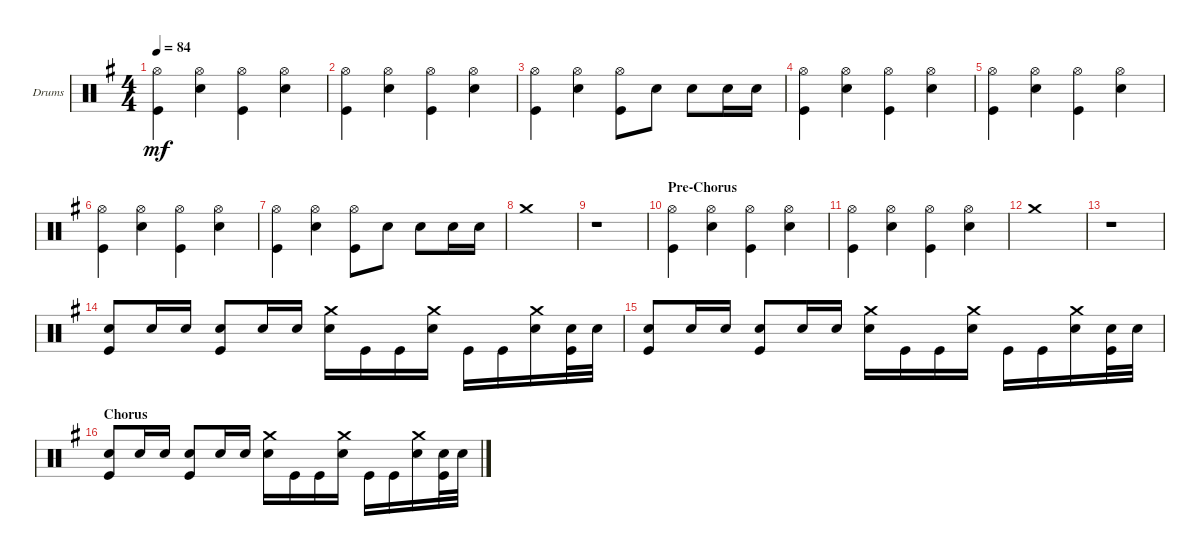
\bracketExtendMode groupsimilarinstruments
\firstSystemTrackNameOrientation horizontal
\otherSystemsTrackNameOrientation horizontal
\track ("Drumkit" "Drums") {instrument percussion}
\staff {score}
\articulation defaults
\ts (4 4)
\tempo 84
\clef neutral
\scale
1.04288
\ks g
("Hi-Hat (open)" "Kick (hit)").4{dy mf} ("Hi-Hat (open)" "Snare (hit) 2").4 ("Hi-Hat (open)" "Kick (hit)").4 ("Hi-Hat (open)" "Snare (hit) 2").4 |
\scale
0.957125 ("Hi-Hat (open)" "Kick (hit)").4 ("Hi-Hat (open)" "Snare (hit) 2").4 ("Hi-Hat (open)" "Kick (hit)").4 ("Hi-Hat (open)" "Snare (hit) 2").4 |
\scale
1.04288 ("Hi-Hat (open)" "Kick (hit)").4 ("Hi-Hat (open)" "Snare (hit) 2").4 ("Hi-Hat (open)" "Kick (hit)").8 "Snare (hit) 2".8 "Snare (hit) 2".8 "Snare (hit) 2".16 "Snare (hit) 2".16 |
\scale
0.957125 ("Hi-Hat (open)" "Kick (hit)").4 ("Hi-Hat (open)" "Snare (hit) 2").4 ("Hi-Hat (open)" "Kick (hit)").4 ("Hi-Hat (open)" "Snare (hit) 2").4 |
\scale
1.04288 ("Hi-Hat (open)" "Kick (hit)").4 ("Hi-Hat (open)" "Snare (hit) 2").4 ("Hi-Hat (open)" "Kick (hit)").4 ("Hi-Hat (open)" "Snare (hit) 2").4 |
\scale
0.957125 ("Hi-Hat (open)" "Kick (hit)").4 ("Hi-Hat (open)" "Snare (hit) 2").4 ("Hi-Hat (open)" "Kick (hit)").4 ("Hi-Hat (open)" "Snare (hit) 2").4 |
\scale
1.04288 ("Hi-Hat (open)" "Kick (hit)").4 ("Hi-Hat (open)" "Snare (hit) 2").4 ("Hi-Hat (open)" "Kick (hit)").8 "Snare (hit) 2".8 "Snare (hit) 2".8 "Snare (hit) 2".16 "Snare (hit) 2".16 |
\scale
0.957125 "Crash medium (hit)".1 |
\scale
1.04288 r.1 |
\section ("" "Pre-Chorus")
\scale
0.957125 ("Hi-Hat (open)" "Kick (hit)").4 ("Hi-Hat (open)" "Snare (hit) 2").4 ("Hi-Hat (open)" "Kick (hit)").4 ("Hi-Hat (open)" "Snare (hit) 2").4 |
\scale
1.04288 ("Hi-Hat (open)" "Kick (hit)").4 ("Hi-Hat (open)" "Snare (hit) 2").4 ("Hi-Hat (open)" "Kick (hit)").4 ("Hi-Hat (open)" "Snare (hit) 2").4 |
\scale
0.957125 "Crash medium (hit)".1 |
\scale
1.04288 r.1 |
\scale
0.957125 ("Snare (hit) 2" "Kick (hit)").8 "Snare (hit) 2".16 "Snare (hit) 2".16 ("Snare (hit) 2" "Kick (hit)").8 "Snare (hit) 2".16 "Snare (hit) 2".16 ("Crash medium (hit)" "Snare (hit) 2").16 "Kick (hit)".16 "Kick (hit)".16 ("Crash medium (hit)" "Snare (hit) 2").16 "Kick (hit)".16 "Kick (hit)".16 ("Crash medium (hit)" "Snare (hit) 2").16 ("Snare (hit) 2" "Kick (hit)").32 "Snare (hit) 2".32 |
\scale
1.04288 ("Snare (hit) 2" "Kick (hit)").8 "Snare (hit) 2".16 "Snare (hit) 2".16 ("Snare (hit) 2" "Kick (hit)").8 "Snare (hit) 2".16 "Snare (hit) 2".16 ("Crash medium (hit)" "Snare (hit) 2").16 "Kick (hit)".16 "Kick (hit)".16 ("Crash medium (hit)" "Snare (hit) 2").16 "Kick (hit)".16 "Kick (hit)".16 ("Crash medium (hit)" "Snare (hit) 2").16 ("Snare (hit) 2" "Kick (hit)").32 "Snare (hit) 2".32 |
\section ("" "Chorus")
\scale
0.957125 ("Snare (hit) 2" "Kick (hit)").8 "Snare (hit) 2".16 "Snare (hit) 2".16 ("Snare (hit) 2" "Kick (hit)").8 "Snare (hit) 2".16 "Snare (hit) 2".16 ("Crash medium (hit)" "Snare (hit) 2").16 "Kick (hit)".16 "Kick (hit)".16 ("Crash medium (hit)" "Snare (hit) 2").16 "Kick (hit)".16 "Kick (hit)".16 ("Crash medium (hit)" "Snare (hit) 2").16 ("Snare (hit) 2" "Kick (hit)").32 "Snare (hit) 2".32
